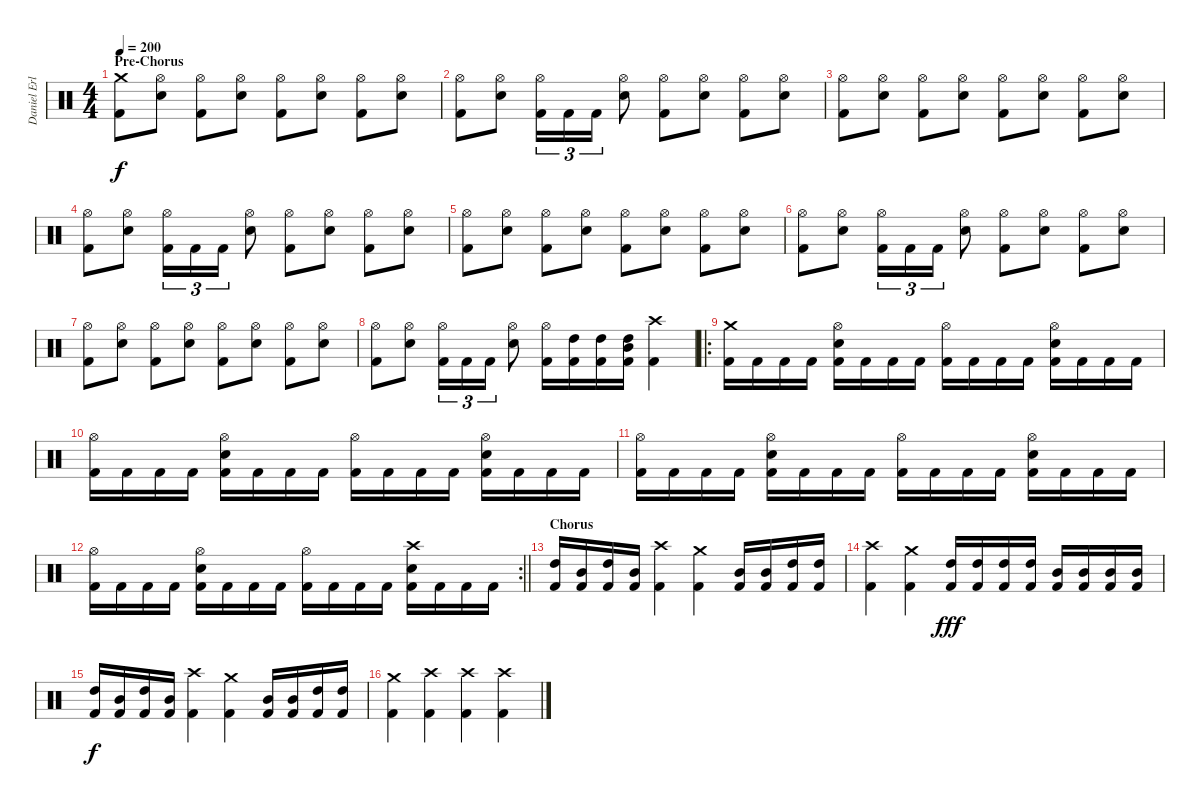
\track ("Daniel Erlandsson" "Daniel Erl") {instrument percussion}
\staff {score}
\articulation defaults
\ts (4 4)
\section ("" "Pre-Chorus")
\tempo 200
\clef neutral
\ks c
("Kick (hit) 2" "Crash medium (hit)").8{dy f} ("Snare (hit) 2" "Hi-Hat (open)").8 ("Kick (hit) 2" "Hi-Hat (open)").8 ("Snare (hit) 2" "Hi-Hat (open)").8 ("Kick (hit) 2" "Hi-Hat (open)").8 ("Snare (hit) 2" "Hi-Hat (open)").8 ("Kick (hit) 2" "Hi-Hat (open)").8 ("Snare (hit) 2" "Hi-Hat (open)").8 |
("Kick (hit) 2" "Hi-Hat (open)").8 ("Snare (hit) 2" "Hi-Hat (open)").8 ("Kick (hit) 2" "Hi-Hat (open)").16{tu (3 2)} "Kick (hit) 2".16{tu (3 2)} "Kick (hit) 2".16{tu (3 2)} ("Snare (hit) 2" "Hi-Hat (open)").8 ("Kick (hit) 2" "Hi-Hat (open)").8 ("Snare (hit) 2" "Hi-Hat (open)").8 ("Kick (hit) 2" "Hi-Hat (open)").8 ("Snare (hit) 2" "Hi-Hat (open)").8 |
("Kick (hit) 2" "Hi-Hat (open)").8 ("Snare (hit) 2" "Hi-Hat (open)").8 ("Kick (hit) 2" "Hi-Hat (open)").8 ("Snare (hit) 2" "Hi-Hat (open)").8 ("Kick (hit) 2" "Hi-Hat (open)").8 ("Snare (hit) 2" "Hi-Hat (open)").8 ("Kick (hit) 2" "Hi-Hat (open)").8 ("Snare (hit) 2" "Hi-Hat (open)").8 |
("Kick (hit) 2" "Hi-Hat (open)").8 ("Snare (hit) 2" "Hi-Hat (open)").8 ("Kick (hit) 2" "Hi-Hat (open)").16{tu (3 2)} "Kick (hit) 2".16{tu (3 2)} "Kick (hit) 2".16{tu (3 2)} ("Snare (hit) 2" "Hi-Hat (open)").8 ("Kick (hit) 2" "Hi-Hat (open)").8 ("Snare (hit) 2" "Hi-Hat (open)").8 ("Kick (hit) 2" "Hi-Hat (open)").8 ("Snare (hit) 2" "Hi-Hat (open)").8 |
("Kick (hit) 2" "Hi-Hat (open)").8 ("Snare (hit) 2" "Hi-Hat (open)").8 ("Kick (hit) 2" "Hi-Hat (open)").8 ("Snare (hit) 2" "Hi-Hat (open)").8 ("Kick (hit) 2" "Hi-Hat (open)").8 ("Snare (hit) 2" "Hi-Hat (open)").8 ("Kick (hit) 2" "Hi-Hat (open)").8 ("Snare (hit) 2" "Hi-Hat (open)").8 |
("Kick (hit) 2" "Hi-Hat (open)").8 ("Snare (hit) 2" "Hi-Hat (open)").8 ("Kick (hit) 2" "Hi-Hat (open)").16{tu (3 2)} "Kick (hit) 2".16{tu (3 2)} "Kick (hit) 2".16{tu (3 2)} ("Snare (hit) 2" "Hi-Hat (open)").8 ("Kick (hit) 2" "Hi-Hat (open)").8 ("Snare (hit) 2" "Hi-Hat (open)").8 ("Kick (hit) 2" "Hi-Hat (open)").8 ("Snare (hit) 2" "Hi-Hat (open)").8 |
("Kick (hit) 2" "Hi-Hat (open)").8 ("Snare (hit) 2" "Hi-Hat (open)").8 ("Kick (hit) 2" "Hi-Hat (open)").8 ("Snare (hit) 2" "Hi-Hat (open)").8 ("Kick (hit) 2" "Hi-Hat (open)").8 ("Snare (hit) 2" "Hi-Hat (open)").8 ("Kick (hit) 2" "Hi-Hat (open)").8 ("Snare (hit) 2" "Hi-Hat (open)").8 |
("Kick (hit) 2" "Hi-Hat (open)").8 ("Snare (hit) 2" "Hi-Hat (open)").8 ("Kick (hit) 2" "Hi-Hat (open)").16{tu (3 2)} "Kick (hit) 2".16{tu (3 2)} "Kick (hit) 2".16{tu (3 2)} ("Snare (hit) 2" "Hi-Hat (open)").8 ("Kick (hit) 2" "Hi-Hat (open)").16 ("Kick (hit) 2" "High Tom (hit)").16 ("Kick (hit) 2" "High Tom (hit)").16 ("Kick (hit) 2" "High Tom (hit)" "Mid Tom (hit)").16 ("Kick (hit) 2" "Crash high (hit)").4 |
\ro
("Kick (hit) 2" "Crash medium (hit)").16 "Kick (hit) 2".16 "Kick (hit) 2".16 "Kick (hit) 2".16 ("Kick (hit) 2" "Snare (hit) 2" "Hi-Hat (open)").16 "Kick (hit) 2".16 "Kick (hit) 2".16 "Kick (hit) 2".16 ("Kick (hit) 2" "Hi-Hat (open)").16 "Kick (hit) 2".16 "Kick (hit) 2".16 "Kick (hit) 2".16 ("Kick (hit) 2" "Snare (hit) 2" "Hi-Hat (open)").16 "Kick (hit) 2".16 "Kick (hit) 2".16 "Kick (hit) 2".16 |
("Kick (hit) 2" "Hi-Hat (open)").16 "Kick (hit) 2".16 "Kick (hit) 2".16 "Kick (hit) 2".16 ("Kick (hit) 2" "Snare (hit) 2" "Hi-Hat (open)").16 "Kick (hit) 2".16 "Kick (hit) 2".16 "Kick (hit) 2".16 ("Kick (hit) 2" "Hi-Hat (open)").16 "Kick (hit) 2".16 "Kick (hit) 2".16 "Kick (hit) 2".16 ("Kick (hit) 2" "Snare (hit) 2" "Hi-Hat (open)").16 "Kick (hit) 2".16 "Kick (hit) 2".16 "Kick (hit) 2".16 |
("Kick (hit) 2" "Hi-Hat (open)").16 "Kick (hit) 2".16 "Kick (hit) 2".16 "Kick (hit) 2".16 ("Kick (hit) 2" "Snare (hit) 2" "Hi-Hat (open)").16 "Kick (hit) 2".16 "Kick (hit) 2".16 "Kick (hit) 2".16 ("Kick (hit) 2" "Hi-Hat (open)").16 "Kick (hit) 2".16 "Kick (hit) 2".16 "Kick (hit) 2".16 ("Kick (hit) 2" "Snare (hit) 2" "Hi-Hat (open)").16 "Kick (hit) 2".16 "Kick (hit) 2".16 "Kick (hit) 2".16 |
\rc 2
\barLineRight lightlight
("Kick (hit) 2" "Hi-Hat (open)").16 "Kick (hit) 2".16 "Kick (hit) 2".16 "Kick (hit) 2".16 ("Kick (hit) 2" "Snare (hit) 2" "Hi-Hat (open)").16 "Kick (hit) 2".16 "Kick (hit) 2".16 "Kick (hit) 2".16 ("Kick (hit) 2" "Hi-Hat (open)").16 "Kick (hit) 2".16 "Kick (hit) 2".16 "Kick (hit) 2".16 ("Kick (hit) 2" "Snare (hit) 2" "Crash high (hit)").16 "Kick (hit) 2".16 "Kick (hit) 2".16 "Kick (hit) 2".16 |
\section ("" "Chorus")
("Kick (hit) 2" "High Tom (hit)").16 ("Kick (hit) 2" "Mid Tom (hit)").16 ("Kick (hit) 2" "High Tom (hit)").16 ("Kick (hit) 2" "Mid Tom (hit)").16 ("Kick (hit) 2" "Crash high (hit)").4 ("Kick (hit) 2" "Crash medium (hit)").4 ("Kick (hit) 2" "Mid Tom (hit)").16 ("Kick (hit) 2" "Mid Tom (hit)").16 ("Kick (hit) 2" "High Tom (hit)").16 ("Kick (hit) 2" "High Tom (hit)").16 |
("Kick (hit) 2" "Crash high (hit)").4 ("Kick (hit) 2" "Crash medium (hit)").4 ("Kick (hit) 2" "High Tom (hit)").16{dy fff} ("Kick (hit) 2" "High Tom (hit)").16 ("Kick (hit) 2" "High Tom (hit)").16 ("Kick (hit) 2" "High Tom (hit)").16 ("Kick (hit) 2" "Mid Tom (hit)").16 ("Kick (hit) 2" "Mid Tom (hit)").16 ("Kick (hit) 2" "Mid Tom (hit)").16 ("Kick (hit) 2" "Mid Tom (hit)").16 |
("Kick (hit) 2" "High Tom (hit)").16{dy f} ("Kick (hit) 2" "Mid Tom (hit)").16 ("Kick (hit) 2" "High Tom (hit)").16 ("Kick (hit) 2" "Mid Tom (hit)").16 ("Kick (hit) 2" "Crash high (hit)").4 ("Kick (hit) 2" "Crash medium (hit)").4 ("Kick (hit) 2" "Mid Tom (hit)").16 ("Kick (hit) 2" "Mid Tom (hit)").16 ("Kick (hit) 2" "High Tom (hit)").16 ("Kick (hit) 2" "High Tom (hit)").16 |
("Kick (hit) 2" "Crash medium (hit)").4 ("Kick (hit) 2" "Crash high (hit)").4 ("Kick (hit) 2" "Crash high (hit)").4 ("Kick (hit) 2" "Crash high (hit)").4
